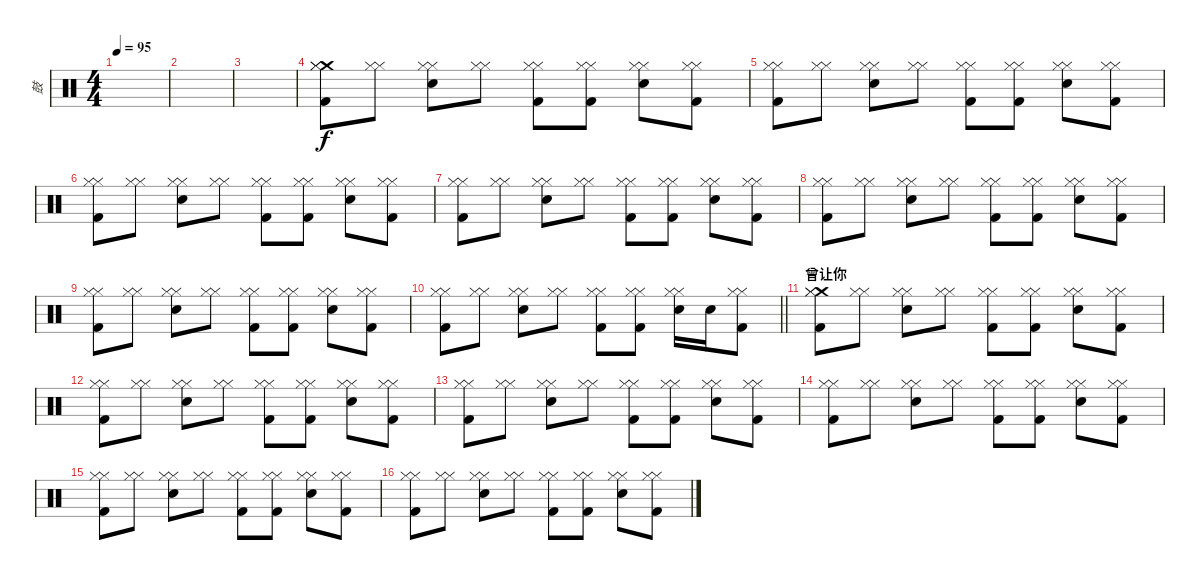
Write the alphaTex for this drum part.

\track ("鼓" "鼓") {instrument percussion}
\staff {score}
\articulation defaults
\ts (4 4)
\tempo 95
\clef neutral
\ks c
|
|
|
("Crash medium (hit)" "Hi-Hat (closed)" "Hi-Hat (closed)" "Kick (hit) 2").8 ("Hi-Hat (closed)" "Hi-Hat (closed)").8 ("Hi-Hat (closed)" "Hi-Hat (closed)" "Metronome (bell)").8 ("Hi-Hat (closed)" "Hi-Hat (closed)").8 ("Hi-Hat (closed)" "Hi-Hat (closed)" "Kick (hit) 2").8 ("Hi-Hat (closed)" "Hi-Hat (closed)" "Kick (hit) 2").8 ("Hi-Hat (closed)" "Hi-Hat (closed)" "Metronome (bell)").8 ("Hi-Hat (closed)" "Hi-Hat (closed)" "Kick (hit) 2").8 |
("Hi-Hat (closed)" "Hi-Hat (closed)" "Kick (hit) 2").8 ("Hi-Hat (closed)" "Hi-Hat (closed)").8 ("Hi-Hat (closed)" "Hi-Hat (closed)" "Metronome (bell)").8 ("Hi-Hat (closed)" "Hi-Hat (closed)").8 ("Hi-Hat (closed)" "Hi-Hat (closed)" "Kick (hit) 2").8 ("Hi-Hat (closed)" "Hi-Hat (closed)" "Kick (hit) 2").8 ("Hi-Hat (closed)" "Hi-Hat (closed)" "Metronome (bell)").8 ("Hi-Hat (closed)" "Hi-Hat (closed)" "Kick (hit) 2").8 |
("Hi-Hat (closed)" "Hi-Hat (closed)" "Kick (hit) 2").8 ("Hi-Hat (closed)" "Hi-Hat (closed)").8 ("Hi-Hat (closed)" "Hi-Hat (closed)" "Metronome (bell)").8 ("Hi-Hat (closed)" "Hi-Hat (closed)").8 ("Hi-Hat (closed)" "Hi-Hat (closed)" "Kick (hit) 2").8 ("Hi-Hat (closed)" "Hi-Hat (closed)" "Kick (hit) 2").8 ("Hi-Hat (closed)" "Hi-Hat (closed)" "Metronome (bell)").8 ("Hi-Hat (closed)" "Hi-Hat (closed)" "Kick (hit) 2").8 |
("Hi-Hat (closed)" "Hi-Hat (closed)" "Kick (hit) 2").8 ("Hi-Hat (closed)" "Hi-Hat (closed)").8 ("Hi-Hat (closed)" "Hi-Hat (closed)" "Metronome (bell)").8 ("Hi-Hat (closed)" "Hi-Hat (closed)").8 ("Hi-Hat (closed)" "Hi-Hat (closed)" "Kick (hit) 2").8 ("Hi-Hat (closed)" "Hi-Hat (closed)" "Kick (hit) 2").8 ("Hi-Hat (closed)" "Hi-Hat (closed)" "Metronome (bell)").8 ("Hi-Hat (closed)" "Hi-Hat (closed)" "Kick (hit) 2").8 |
("Hi-Hat (closed)" "Hi-Hat (closed)" "Kick (hit) 2").8 ("Hi-Hat (closed)" "Hi-Hat (closed)").8 ("Hi-Hat (closed)" "Hi-Hat (closed)" "Metronome (bell)").8 ("Hi-Hat (closed)" "Hi-Hat (closed)").8 ("Hi-Hat (closed)" "Hi-Hat (closed)" "Kick (hit) 2").8 ("Hi-Hat (closed)" "Hi-Hat (closed)" "Kick (hit) 2").8 ("Hi-Hat (closed)" "Hi-Hat (closed)" "Metronome (bell)").8 ("Hi-Hat (closed)" "Hi-Hat (closed)" "Kick (hit) 2").8 |
("Hi-Hat (closed)" "Hi-Hat (closed)" "Kick (hit) 2").8 ("Hi-Hat (closed)" "Hi-Hat (closed)").8 ("Hi-Hat (closed)" "Hi-Hat (closed)" "Metronome (bell)").8 ("Hi-Hat (closed)" "Hi-Hat (closed)").8 ("Hi-Hat (closed)" "Hi-Hat (closed)" "Kick (hit) 2").8 ("Hi-Hat (closed)" "Hi-Hat (closed)" "Kick (hit) 2").8 ("Hi-Hat (closed)" "Hi-Hat (closed)" "Metronome (bell)").8 ("Hi-Hat (closed)" "Hi-Hat (closed)" "Kick (hit) 2").8 |
\barLineRight lightlight
("Hi-Hat (closed)" "Hi-Hat (closed)" "Kick (hit) 2").8 ("Hi-Hat (closed)" "Hi-Hat (closed)").8 ("Hi-Hat (closed)" "Hi-Hat (closed)" "Metronome (bell)").8 ("Hi-Hat (closed)" "Hi-Hat (closed)").8 ("Hi-Hat (closed)" "Hi-Hat (closed)" "Kick (hit) 2").8 ("Hi-Hat (closed)" "Hi-Hat (closed)" "Kick (hit) 2").8 ("Hi-Hat (closed)" "Hi-Hat (closed)" "Metronome (bell)").16 "Metronome (bell)".16 ("Hi-Hat (closed)" "Hi-Hat (closed)" "Kick (hit) 2").8 |
\section ("" "曾让你")
("Crash medium (hit)" "Hi-Hat (closed)" "Hi-Hat (closed)" "Kick (hit) 2").8 ("Hi-Hat (closed)" "Hi-Hat (closed)").8 ("Hi-Hat (closed)" "Hi-Hat (closed)" "Metronome (bell)").8 ("Hi-Hat (closed)" "Hi-Hat (closed)").8 ("Hi-Hat (closed)" "Hi-Hat (closed)" "Kick (hit) 2").8 ("Hi-Hat (closed)" "Hi-Hat (closed)" "Kick (hit) 2").8 ("Hi-Hat (closed)" "Hi-Hat (closed)" "Metronome (bell)").8 ("Hi-Hat (closed)" "Hi-Hat (closed)" "Kick (hit) 2").8 |
("Hi-Hat (closed)" "Hi-Hat (closed)" "Kick (hit) 2").8 ("Hi-Hat (closed)" "Hi-Hat (closed)").8 ("Hi-Hat (closed)" "Hi-Hat (closed)" "Metronome (bell)").8 ("Hi-Hat (closed)" "Hi-Hat (closed)").8 ("Hi-Hat (closed)" "Hi-Hat (closed)" "Kick (hit) 2").8 ("Hi-Hat (closed)" "Hi-Hat (closed)" "Kick (hit) 2").8 ("Hi-Hat (closed)" "Hi-Hat (closed)" "Metronome (bell)").8 ("Hi-Hat (closed)" "Hi-Hat (closed)" "Kick (hit) 2").8 |
("Hi-Hat (closed)" "Hi-Hat (closed)" "Kick (hit) 2").8 ("Hi-Hat (closed)" "Hi-Hat (closed)").8 ("Hi-Hat (closed)" "Hi-Hat (closed)" "Metronome (bell)").8 ("Hi-Hat (closed)" "Hi-Hat (closed)").8 ("Hi-Hat (closed)" "Hi-Hat (closed)" "Kick (hit) 2").8 ("Hi-Hat (closed)" "Hi-Hat (closed)" "Kick (hit) 2").8 ("Hi-Hat (closed)" "Hi-Hat (closed)" "Metronome (bell)").8 ("Hi-Hat (closed)" "Hi-Hat (closed)" "Kick (hit) 2").8 |
("Hi-Hat (closed)" "Hi-Hat (closed)" "Kick (hit) 2").8 ("Hi-Hat (closed)" "Hi-Hat (closed)").8 ("Hi-Hat (closed)" "Hi-Hat (closed)" "Metronome (bell)").8 ("Hi-Hat (closed)" "Hi-Hat (closed)").8 ("Hi-Hat (closed)" "Hi-Hat (closed)" "Kick (hit) 2").8 ("Hi-Hat (closed)" "Hi-Hat (closed)" "Kick (hit) 2").8 ("Hi-Hat (closed)" "Hi-Hat (closed)" "Metronome (bell)").8 ("Hi-Hat (closed)" "Hi-Hat (closed)" "Kick (hit) 2").8 |
("Hi-Hat (closed)" "Hi-Hat (closed)" "Kick (hit) 2").8 ("Hi-Hat (closed)" "Hi-Hat (closed)").8 ("Hi-Hat (closed)" "Hi-Hat (closed)" "Metronome (bell)").8 ("Hi-Hat (closed)" "Hi-Hat (closed)").8 ("Hi-Hat (closed)" "Hi-Hat (closed)" "Kick (hit) 2").8 ("Hi-Hat (closed)" "Hi-Hat (closed)" "Kick (hit) 2").8 ("Hi-Hat (closed)" "Hi-Hat (closed)" "Metronome (bell)").8 ("Hi-Hat (closed)" "Hi-Hat (closed)" "Kick (hit) 2").8 |
("Hi-Hat (closed)" "Hi-Hat (closed)" "Kick (hit) 2").8 ("Hi-Hat (closed)" "Hi-Hat (closed)").8 ("Hi-Hat (closed)" "Hi-Hat (closed)" "Metronome (bell)").8 ("Hi-Hat (closed)" "Hi-Hat (closed)").8 ("Hi-Hat (closed)" "Hi-Hat (closed)" "Kick (hit) 2").8 ("Hi-Hat (closed)" "Hi-Hat (closed)" "Kick (hit) 2").8 ("Hi-Hat (closed)" "Hi-Hat (closed)" "Metronome (bell)").8 ("Hi-Hat (closed)" "Hi-Hat (closed)" "Kick (hit) 2").8
